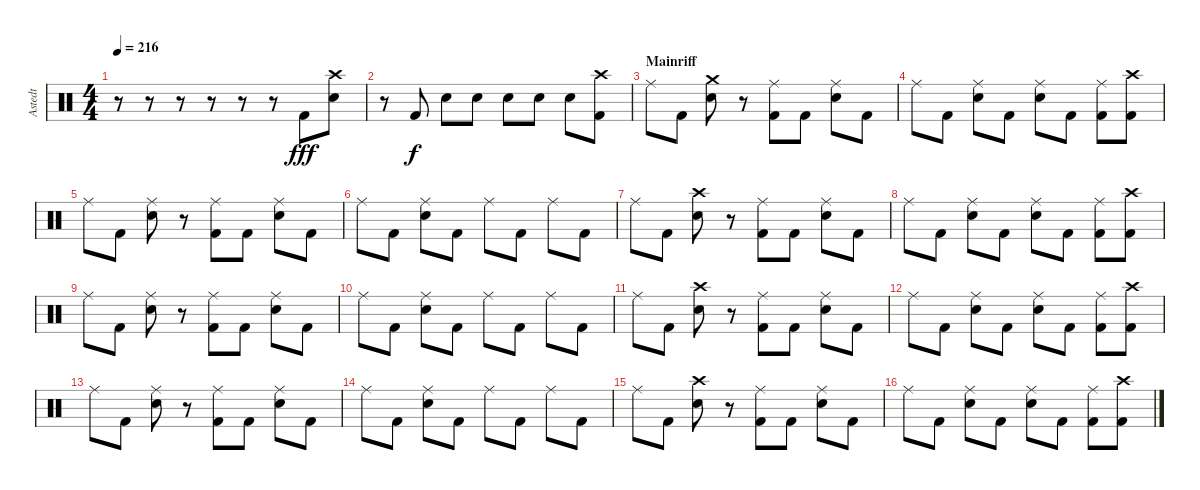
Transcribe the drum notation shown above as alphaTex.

\track ("Astedt" "Astedt") {instrument percussion}
\staff {score}
\articulation defaults
\ts (4 4)
\tempo 216
\clef neutral
\ks c
r.8{dy fff} r.8 r.8 r.8 r.8 r.8 "Kick (hit) 2".8 ("Crash high (hit)" "Snare (hit) 2").8 |
r.8 "Kick (hit) 2".8{dy f} "Snare (hit) 2".8 "Snare (hit) 2".8 "Snare (hit) 2".8 "Snare (hit) 2".8 "Snare (hit) 2".8 ("Crash high (hit)" "Kick (hit) 2").8 |
\section ("" "Mainriff")
"Ride (middle)".8 "Kick (hit) 2".8 ("Crash medium (hit)" "Snare (hit) 2").8 r.8 ("Ride (middle)" "Kick (hit) 2").8 "Kick (hit) 2".8 ("Ride (middle)" "Snare (hit) 2").8 "Kick (hit) 2".8 |
"Ride (middle)".8 "Kick (hit) 2".8 ("Ride (middle)" "Snare (hit) 2").8 "Kick (hit) 2".8 ("Ride (middle)" "Snare (hit) 2").8 "Kick (hit) 2".8 ("Ride (middle)" "Kick (hit) 2").8 ("Crash high (hit)" "Kick (hit) 2").8 |
"Ride (middle)".8 "Kick (hit) 2".8 ("Ride (middle)" "Snare (hit) 2").8 r.8 ("Ride (middle)" "Kick (hit) 2").8 "Kick (hit) 2".8 ("Ride (middle)" "Snare (hit) 2").8 "Kick (hit) 2".8 |
"Ride (middle)".8 "Kick (hit) 2".8 ("Ride (middle)" "Snare (hit) 2").8 "Kick (hit) 2".8 "Ride (middle)".8 "Kick (hit) 2".8 "Ride (middle)".8 "Kick (hit) 2".8 |
"Ride (middle)".8 "Kick (hit) 2".8 ("Crash high (hit)" "Snare (hit) 2").8 r.8 ("Ride (middle)" "Kick (hit) 2").8 "Kick (hit) 2".8 ("Ride (middle)" "Snare (hit) 2").8 "Kick (hit) 2".8 |
"Ride (middle)".8 "Kick (hit) 2".8 ("Ride (middle)" "Snare (hit) 2").8 "Kick (hit) 2".8 ("Ride (middle)" "Snare (hit) 2").8 "Kick (hit) 2".8 ("Ride (middle)" "Kick (hit) 2").8 ("Crash high (hit)" "Kick (hit) 2").8 |
"Ride (middle)".8 "Kick (hit) 2".8 ("Ride (middle)" "Snare (hit) 2").8 r.8 ("Ride (middle)" "Kick (hit) 2").8 "Kick (hit) 2".8 ("Ride (middle)" "Snare (hit) 2").8 "Kick (hit) 2".8 |
"Ride (middle)".8 "Kick (hit) 2".8 ("Ride (middle)" "Snare (hit) 2").8 "Kick (hit) 2".8 "Ride (middle)".8 "Kick (hit) 2".8 "Ride (middle)".8 "Kick (hit) 2".8 |
"Ride (middle)".8 "Kick (hit) 2".8 ("Crash high (hit)" "Snare (hit) 2").8 r.8 ("Ride (middle)" "Kick (hit) 2").8 "Kick (hit) 2".8 ("Ride (middle)" "Snare (hit) 2").8 "Kick (hit) 2".8 |
"Ride (middle)".8 "Kick (hit) 2".8 ("Ride (middle)" "Snare (hit) 2").8 "Kick (hit) 2".8 ("Ride (middle)" "Snare (hit) 2").8 "Kick (hit) 2".8 ("Ride (middle)" "Kick (hit) 2").8 ("Crash high (hit)" "Kick (hit) 2").8 |
"Ride (middle)".8 "Kick (hit) 2".8 ("Ride (middle)" "Snare (hit) 2").8 r.8 ("Ride (middle)" "Kick (hit) 2").8 "Kick (hit) 2".8 ("Ride (middle)" "Snare (hit) 2").8 "Kick (hit) 2".8 |
"Ride (middle)".8 "Kick (hit) 2".8 ("Ride (middle)" "Snare (hit) 2").8 "Kick (hit) 2".8 "Ride (middle)".8 "Kick (hit) 2".8 "Ride (middle)".8 "Kick (hit) 2".8 |
"Ride (middle)".8 "Kick (hit) 2".8 ("Crash high (hit)" "Snare (hit) 2").8 r.8 ("Ride (middle)" "Kick (hit) 2").8 "Kick (hit) 2".8 ("Ride (middle)" "Snare (hit) 2").8 "Kick (hit) 2".8 |
"Ride (middle)".8 "Kick (hit) 2".8 ("Ride (middle)" "Snare (hit) 2").8 "Kick (hit) 2".8 ("Ride (middle)" "Snare (hit) 2").8 "Kick (hit) 2".8 ("Ride (middle)" "Kick (hit) 2").8 ("Crash high (hit)" "Kick (hit) 2").8
